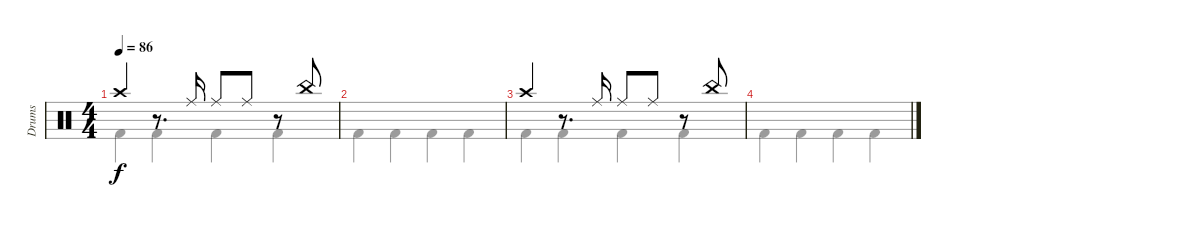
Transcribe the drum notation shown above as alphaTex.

\track ("Drums" "Drums") {instrument percussion}
\staff {score}
\articulation defaults
\voice
\ts (4 4)
\tempo 86
\clef neutral
\ks c "Crash high (hit)".4{dy f}
r.8{d} "Ride (middle)".16 "Ride (middle)".8 "Ride (middle)".8 r.8 "China (hit)".8 |
|
"Crash high (hit)".4 r.8{d} "Ride (middle)".16 "Ride (middle)".8 "Ride (middle)".8 r.8 "China (hit)".8 |
\voice
\clef neutral
\ottava regular
\simile none
\ks c "Kick (hit) 2".4{dy f} "Kick (hit) 2".4 "Kick (hit) 2".4 "Kick (hit) 2".4
|
"Kick (hit) 2".4 "Kick (hit) 2".4 "Kick (hit) 2".4 "Kick (hit) 2".4 |
"Kick (hit) 2".4 "Kick (hit) 2".4 "Kick (hit) 2".4 "Kick (hit) 2".4 |
"Kick (hit) 2".4 "Kick (hit) 2".4 "Kick (hit) 2".4 "Kick (hit) 2".4
